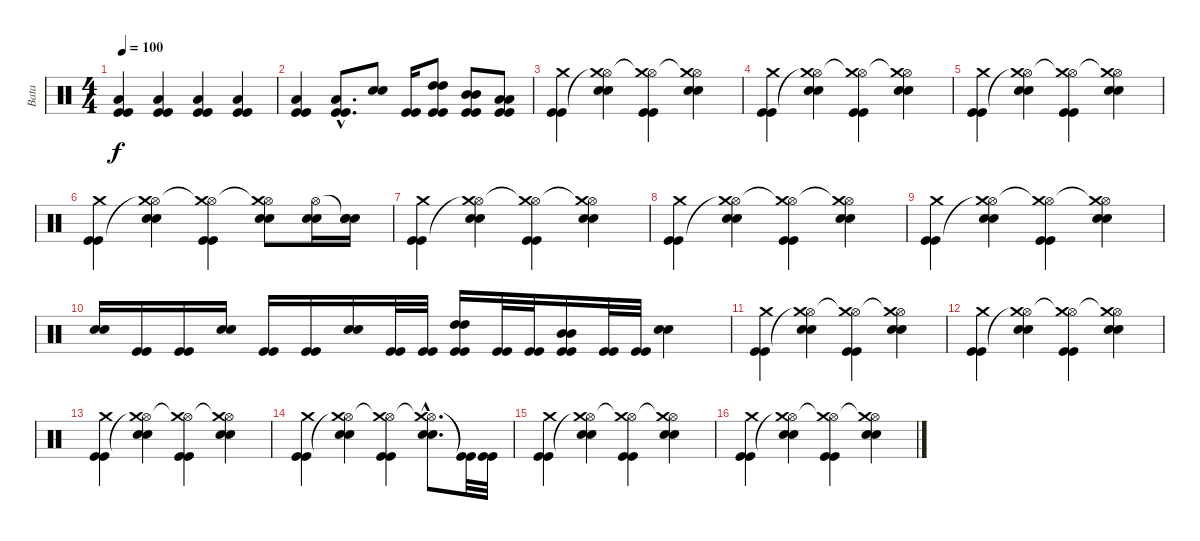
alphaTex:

\track ("Bata" "Bata") {instrument percussion}
\staff {score}
\articulation defaults
\ts (4 4)
\tempo 100
\clef neutral
\ks c
("Low Floor Tom (hit)" "Kick (hit)" "Kick (hit)").4{dy f} ("Low Floor Tom (hit)" "Kick (hit)" "Kick (hit)").4 ("Low Floor Tom (hit)" "Kick (hit)" "Kick (hit)").4 ("Low Floor Tom (hit)" "Kick (hit)" "Kick (hit)").4 |
("Low Floor Tom (hit)" "Kick (hit)" "Kick (hit)").4 ("Low Floor Tom (hit)"{hac} "Kick (hit)"{hac} "Kick (hit)"{hac}).8{d} ("Electric Snare (hit)" "Electric Snare (hit)").8 ("Kick (hit)" "Kick (hit)").16 ("High Tom (hit)" "High Tom (hit)" "Kick (hit)" "Kick (hit)").8 ("Mid Tom (hit)" "Mid Tom (hit)" "Kick (hit)" "Kick (hit)").8 ("Low Tom (hit)" "Low Tom (hit)" "Kick (hit)" "Kick (hit)").8 |
("Crash medium (hit)" "Kick (hit)" "Kick (hit)").4 ("Hi-Hat (open)" "Crash medium (hit)"{t} "Electric Snare (hit)" "Electric Snare (hit)").4 ("Hi-Hat (open)" "Crash medium (hit)"{t} "Kick (hit)" "Kick (hit)").4 ("Hi-Hat (open)" "Crash medium (hit)"{t} "Electric Snare (hit)" "Electric Snare (hit)").4 |
("Crash medium (hit)" "Kick (hit)" "Kick (hit)").4 ("Hi-Hat (open)" "Crash medium (hit)"{t} "Electric Snare (hit)" "Electric Snare (hit)").4 ("Hi-Hat (open)" "Crash medium (hit)"{t} "Kick (hit)" "Kick (hit)").4 ("Hi-Hat (open)" "Crash medium (hit)"{t} "Electric Snare (hit)" "Electric Snare (hit)").4 |
("Crash medium (hit)" "Kick (hit)" "Kick (hit)").4 ("Hi-Hat (open)" "Crash medium (hit)"{t} "Electric Snare (hit)" "Electric Snare (hit)").4 ("Hi-Hat (open)" "Crash medium (hit)"{t} "Kick (hit)" "Kick (hit)").4 ("Hi-Hat (open)" "Crash medium (hit)"{t} "Electric Snare (hit)" "Electric Snare (hit)").4 |
("Crash medium (hit)" "Kick (hit)" "Kick (hit)").4 ("Hi-Hat (open)" "Crash medium (hit)"{t} "Electric Snare (hit)" "Electric Snare (hit)").4 ("Hi-Hat (open)" "Crash medium (hit)"{t} "Kick (hit)" "Kick (hit)").4 ("Hi-Hat (open)" "Crash medium (hit)"{t} "Electric Snare (hit)" "Electric Snare (hit)").8 ("Hi-Hat (open)" "Electric Snare (hit)" "Electric Snare (hit)").16 ("Snare (hit)"{t} "Electric Snare (hit)" "Electric Snare (hit)").16 |
("Crash medium (hit)" "Kick (hit)" "Kick (hit)").4 ("Hi-Hat (open)" "Crash medium (hit)"{t} "Electric Snare (hit)" "Electric Snare (hit)").4 ("Hi-Hat (open)" "Crash medium (hit)"{t} "Kick (hit)" "Kick (hit)").4 ("Hi-Hat (open)" "Crash medium (hit)"{t} "Electric Snare (hit)" "Electric Snare (hit)").4 |
("Crash medium (hit)" "Kick (hit)" "Kick (hit)").4 ("Hi-Hat (open)" "Crash medium (hit)"{t} "Electric Snare (hit)" "Electric Snare (hit)").4 ("Hi-Hat (open)" "Crash medium (hit)"{t} "Kick (hit)" "Kick (hit)").4 ("Hi-Hat (open)" "Crash medium (hit)"{t} "Electric Snare (hit)" "Electric Snare (hit)").4 |
("Crash medium (hit)" "Kick (hit)" "Kick (hit)").4 ("Hi-Hat (open)" "Crash medium (hit)"{t} "Electric Snare (hit)" "Electric Snare (hit)").4 ("Hi-Hat (open)" "Crash medium (hit)"{t} "Kick (hit)" "Kick (hit)").4 ("Hi-Hat (open)" "Crash medium (hit)"{t} "Electric Snare (hit)" "Electric Snare (hit)").4 |
("Electric Snare (hit)" "Electric Snare (hit)").16 ("Kick (hit)" "Kick (hit)").16 ("Kick (hit)" "Kick (hit)").16 ("Electric Snare (hit)" "Electric Snare (hit)").16 ("Kick (hit)" "Kick (hit)").16 ("Kick (hit)" "Kick (hit)").16 ("Electric Snare (hit)" "Electric Snare (hit)").16 ("Kick (hit)" "Kick (hit)").32 ("Kick (hit)" "Kick (hit)").32 ("High Tom (hit)" "High Tom (hit)" "Kick (hit)" "Kick (hit)").16 ("Kick (hit)" "Kick (hit)").32 ("Kick (hit)" "Kick (hit)").32 ("Mid Tom (hit)" "Mid Tom (hit)" "Kick (hit)" "Kick (hit)").16 ("Kick (hit)" "Kick (hit)").32 ("Kick (hit)" "Kick (hit)").32 ("Electric Snare (hit)" "Electric Snare (hit)").4 |
("Crash medium (hit)" "Kick (hit)" "Kick (hit)").4 ("Hi-Hat (open)" "Crash medium (hit)"{t} "Electric Snare (hit)" "Electric Snare (hit)").4 ("Hi-Hat (open)" "Crash medium (hit)"{t} "Kick (hit)" "Kick (hit)").4 ("Hi-Hat (open)" "Crash medium (hit)"{t} "Electric Snare (hit)" "Electric Snare (hit)").4 |
("Crash medium (hit)" "Kick (hit)" "Kick (hit)").4 ("Hi-Hat (open)" "Crash medium (hit)"{t} "Electric Snare (hit)" "Electric Snare (hit)").4 ("Hi-Hat (open)" "Crash medium (hit)"{t} "Kick (hit)" "Kick (hit)").4 ("Hi-Hat (open)" "Crash medium (hit)"{t} "Electric Snare (hit)" "Electric Snare (hit)").4 |
("Crash medium (hit)" "Kick (hit)" "Kick (hit)").4 ("Hi-Hat (open)" "Crash medium (hit)"{t} "Electric Snare (hit)" "Electric Snare (hit)").4 ("Hi-Hat (open)" "Crash medium (hit)"{t} "Kick (hit)" "Kick (hit)").4 ("Hi-Hat (open)" "Crash medium (hit)"{t} "Electric Snare (hit)" "Electric Snare (hit)").4 |
("Crash medium (hit)" "Kick (hit)" "Kick (hit)").4 ("Hi-Hat (open)" "Crash medium (hit)"{t} "Electric Snare (hit)" "Electric Snare (hit)").4 ("Hi-Hat (open)" "Crash medium (hit)"{t} "Kick (hit)" "Kick (hit)").4 ("Hi-Hat (open)"{hac} "Crash medium (hit)"{hac t} "Electric Snare (hit)"{hac} "Electric Snare (hit)"{hac}).8{d} ("Kick (hit)"{t} "Kick (hit)"{t}).32 ("Kick (hit)" "Kick (hit)").32 |
("Crash medium (hit)" "Kick (hit)" "Kick (hit)").4 ("Hi-Hat (open)" "Crash medium (hit)"{t} "Electric Snare (hit)" "Electric Snare (hit)").4 ("Hi-Hat (open)" "Crash medium (hit)"{t} "Kick (hit)" "Kick (hit)").4 ("Hi-Hat (open)" "Crash medium (hit)"{t} "Electric Snare (hit)" "Electric Snare (hit)").4 |
("Crash medium (hit)" "Kick (hit)" "Kick (hit)").4 ("Hi-Hat (open)" "Crash medium (hit)"{t} "Electric Snare (hit)" "Electric Snare (hit)").4 ("Hi-Hat (open)" "Crash medium (hit)"{t} "Kick (hit)" "Kick (hit)").4 ("Hi-Hat (open)" "Crash medium (hit)"{t} "Electric Snare (hit)" "Electric Snare (hit)").4
